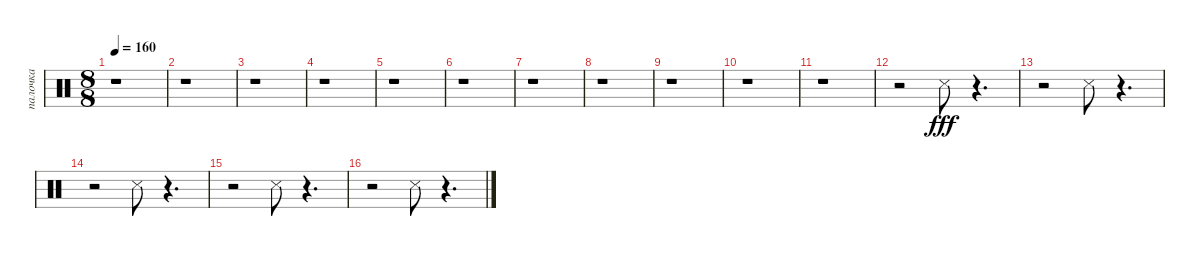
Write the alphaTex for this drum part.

\track ("палочка" "палочка") {instrument percussion}
\staff {score}
\articulation defaults
\ts (8 8)
\tempo 160
\clef neutral
\ks c
r.1{dy fff} |
r.1 |
r.1 |
r.1 |
r.1 |
r.1 |
r.1 |
r.1 |
r.1 |
r.1 |
r.1 |
r.2 "Snare (side stick) 3".8 r.4{d} |
r.2 "Snare (side stick) 3".8 r.4{d} |
r.2 "Snare (side stick) 3".8 r.4{d} |
r.2 "Snare (side stick) 3".8 r.4{d} |
r.2 "Snare (side stick) 3".8 r.4{d}
